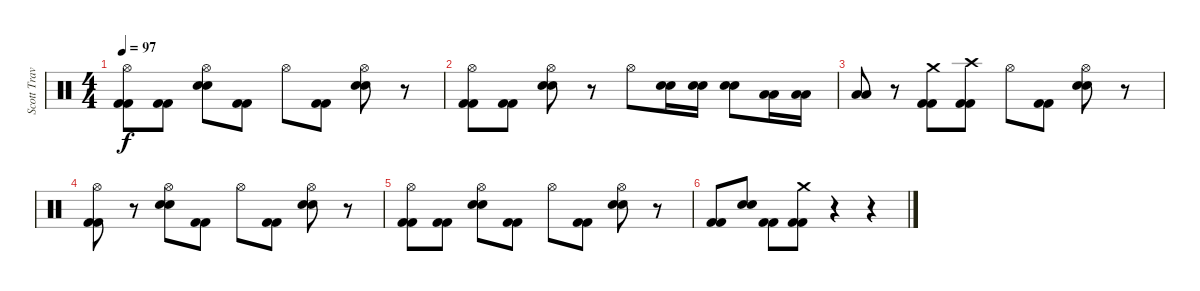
\track ("Scott Travis" "Scott Trav") {instrument percussion}
\staff {score}
\articulation defaults
\ts (4 4)
\tempo 97
\clef neutral
\ks c
("Hi-Hat (open)" "Kick (hit) 2" "Kick (hit) 2").8{dy f} ("Kick (hit) 2" "Kick (hit) 2").8 ("Hi-Hat (open)" "Snare (hit) 2" "Snare (hit) 2").8 ("Kick (hit) 2" "Kick (hit) 2").8 "Hi-Hat (open)".8 ("Kick (hit) 2" "Kick (hit) 2").8 ("Hi-Hat (open)" "Snare (hit) 2" "Snare (hit) 2").8 r.8 |
("Hi-Hat (open)" "Kick (hit) 2" "Kick (hit) 2").8 ("Kick (hit) 2" "Kick (hit) 2").8 ("Hi-Hat (open)" "Snare (hit) 2" "Snare (hit) 2").8 r.8 "Hi-Hat (open)".8 ("Snare (hit) 2" "Snare (hit) 2").16 ("Snare (hit) 2" "Snare (hit) 2").16 ("Snare (hit) 2" "Snare (hit) 2").8 ("Low Tom (hit)" "Low Tom (hit)").16 ("Low Tom (hit)" "Low Tom (hit)").16 |
("Low Tom (hit)" "Low Tom (hit)").8 r.8 ("Crash medium (hit)" "Kick (hit) 2" "Kick (hit) 2").8 ("Crash high (hit)" "Kick (hit) 2" "Kick (hit) 2").8 "Hi-Hat (open)".8 ("Kick (hit) 2" "Kick (hit) 2").8 ("Hi-Hat (open)" "Snare (hit) 2" "Snare (hit) 2").8 r.8 |
("Hi-Hat (open)" "Kick (hit) 2" "Kick (hit) 2").8 r.8 ("Hi-Hat (open)" "Snare (hit) 2" "Snare (hit) 2").8 ("Kick (hit) 2" "Kick (hit) 2").8 "Hi-Hat (open)".8 ("Kick (hit) 2" "Kick (hit) 2").8 ("Hi-Hat (open)" "Snare (hit) 2" "Snare (hit) 2").8 r.8 |
("Hi-Hat (open)" "Kick (hit) 2" "Kick (hit) 2").8 ("Kick (hit) 2" "Kick (hit) 2").8 ("Hi-Hat (open)" "Snare (hit) 2" "Snare (hit) 2").8 ("Kick (hit) 2" "Kick (hit) 2").8 "Hi-Hat (open)".8 ("Kick (hit) 2" "Kick (hit) 2").8 ("Hi-Hat (open)" "Snare (hit) 2" "Snare (hit) 2").8 r.8 |
("Kick (hit) 2" "Kick (hit) 2").8 ("Snare (hit) 2" "Snare (hit) 2").8 ("Kick (hit) 2" "Kick (hit) 2").8 ("Crash medium (hit)" "Kick (hit) 2" "Kick (hit) 2").8 r.4 r.4
